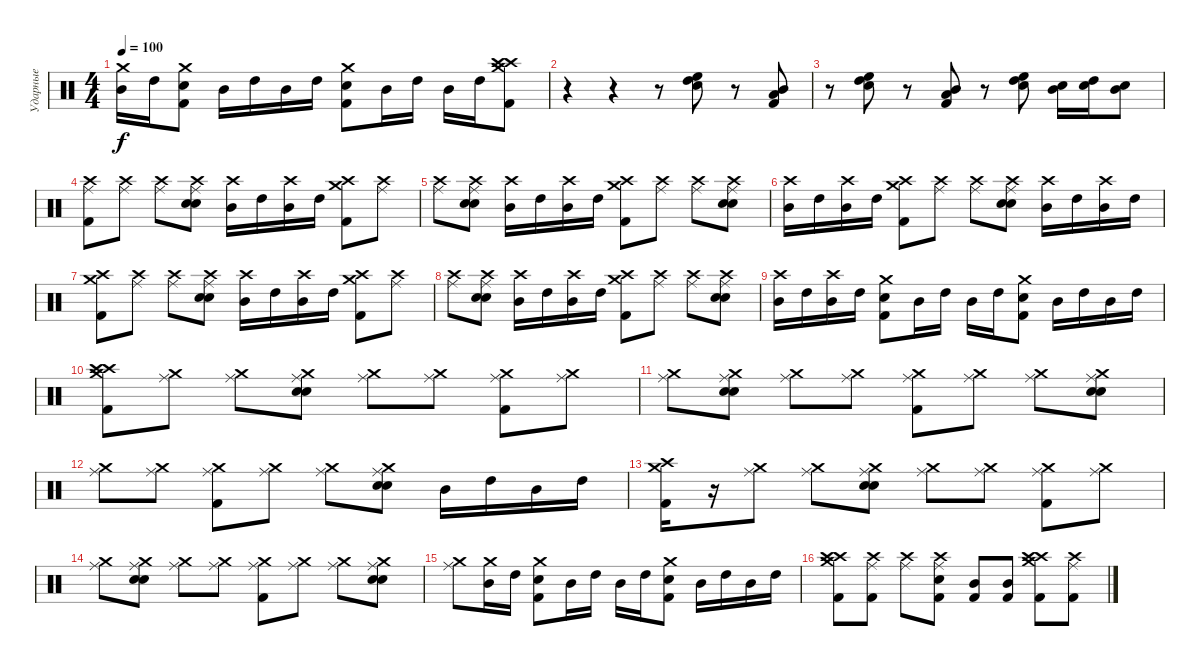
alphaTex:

\track ("Ударные" "Ударные") {instrument percussion}
\staff {score}
\articulation defaults
\ts (4 4)
\tempo 100
\clef neutral
\ks c
("Crash medium (hit)" "Mid Tom (hit)").16{dy f} "High Tom (hit)".16 ("Crash medium (hit)" "Snare (hit) 2" "Kick (hit) 2").8 "Mid Tom (hit)".16 "High Tom (hit)".16 "Mid Tom (hit)".16 "High Tom (hit)".16 ("Crash medium (hit)" "Snare (hit) 2" "Kick (hit) 2").8 "Mid Tom (hit)".16 "High Tom (hit)".16 "Mid Tom (hit)".16 "High Tom (hit)".16 ("Crash high (hit)" "Crash medium (hit)" "Crash high (hit)" "Kick (hit) 2").8 |
r.4 r.4 r.8 ("High Floor Tom (hit)" "High Tom (hit)" "Snare (hit) 2").8 r.8 ("Low Tom (hit)" "Mid Tom (hit)" "Kick (hit) 2").8 |
r.8 ("High Floor Tom (hit)" "High Tom (hit)" "Snare (hit) 2").8 r.8 ("Low Tom (hit)" "Mid Tom (hit)" "Kick (hit) 2").8 r.8 ("High Floor Tom (hit)" "High Tom (hit)" "Snare (hit) 2").8 ("Mid Tom (hit)" "Electric Snare (hit)").16 ("High Tom (hit)" "Snare (hit) 2").16 ("Mid Tom (hit)" "Electric Snare (hit)").8 |
("Crash high (hit)" "Kick (hit) 2" "Ride (middle)").8 ("Crash high (hit)" "Ride (middle)").8 ("Crash high (hit)" "Ride (middle)").8 ("Crash high (hit)" "Hand Clap (hit)" "Electric Snare (hit)" "Ride (middle)").8 ("Crash high (hit)" "Mid Tom (hit)").16 "High Tom (hit)".16 ("Crash high (hit)" "Mid Tom (hit)").16 "High Tom (hit)".16 ("Crash medium (hit)" "Crash high (hit)" "Kick (hit) 2").8 ("Crash high (hit)" "Ride (middle)").8 |
("Crash high (hit)" "Ride (middle)").8 ("Crash high (hit)" "Hand Clap (hit)" "Electric Snare (hit)" "Ride (middle)").8 ("Crash high (hit)" "Mid Tom (hit)").16 "High Tom (hit)".16 ("Crash high (hit)" "Mid Tom (hit)").16 "High Tom (hit)".16 ("Crash medium (hit)" "Crash high (hit)" "Kick (hit) 2").8 ("Crash high (hit)" "Ride (middle)").8 ("Crash high (hit)" "Ride (middle)").8 ("Crash high (hit)" "Hand Clap (hit)" "Electric Snare (hit)" "Ride (middle)").8 |
("Crash high (hit)" "Mid Tom (hit)").16 "High Tom (hit)".16 ("Crash high (hit)" "Mid Tom (hit)").16 "High Tom (hit)".16 ("Crash medium (hit)" "Crash high (hit)" "Kick (hit) 2").8 ("Crash high (hit)" "Ride (middle)").8 ("Crash high (hit)" "Ride (middle)").8 ("Crash high (hit)" "Hand Clap (hit)" "Electric Snare (hit)" "Ride (middle)").8 ("Crash high (hit)" "Mid Tom (hit)").16 "High Tom (hit)".16 ("Crash high (hit)" "Mid Tom (hit)").16 "High Tom (hit)".16 |
("Crash medium (hit)" "Crash high (hit)" "Kick (hit) 2").8 ("Crash high (hit)" "Ride (middle)").8 ("Crash high (hit)" "Ride (middle)").8 ("Crash high (hit)" "Hand Clap (hit)" "Electric Snare (hit)" "Ride (middle)").8 ("Crash high (hit)" "Mid Tom (hit)").16 "High Tom (hit)".16 ("Crash high (hit)" "Mid Tom (hit)").16 "High Tom (hit)".16 ("Crash medium (hit)" "Crash high (hit)" "Kick (hit) 2").8 ("Crash high (hit)" "Ride (middle)").8 |
("Crash high (hit)" "Ride (middle)").8 ("Crash high (hit)" "Hand Clap (hit)" "Electric Snare (hit)" "Ride (middle)").8 ("Crash high (hit)" "Mid Tom (hit)").16 "High Tom (hit)".16 ("Crash high (hit)" "Mid Tom (hit)").16 "High Tom (hit)".16 ("Crash medium (hit)" "Crash high (hit)" "Kick (hit) 2").8 ("Crash high (hit)" "Ride (middle)").8 ("Crash high (hit)" "Ride (middle)").8 ("Crash high (hit)" "Hand Clap (hit)" "Electric Snare (hit)" "Ride (middle)").8 |
("Crash high (hit)" "Mid Tom (hit)").16 "High Tom (hit)".16 ("Crash high (hit)" "Mid Tom (hit)").16 "High Tom (hit)".16 ("Crash medium (hit)" "Snare (hit) 2" "Kick (hit) 2").8 "Mid Tom (hit)".16 "High Tom (hit)".16 "Mid Tom (hit)".16 "High Tom (hit)".16 ("Crash medium (hit)" "Snare (hit) 2" "Kick (hit) 2").8 "Mid Tom (hit)".16 "High Tom (hit)".16 "Mid Tom (hit)".16 "High Tom (hit)".16 |
("Crash high (hit)" "Crash medium (hit)" "Crash high (hit)" "Kick (hit) 2").8 ("Crash medium (hit)" "Ride (middle)").8 ("Crash medium (hit)" "Ride (middle)").8 ("Crash medium (hit)" "Hand Clap (hit)" "Electric Snare (hit)" "Ride (middle)").8 ("Crash medium (hit)" "Ride (middle)").8 ("Crash medium (hit)" "Ride (middle)").8 ("Crash medium (hit)" "Kick (hit) 2" "Ride (middle)").8 ("Crash medium (hit)" "Ride (middle)").8 |
("Crash medium (hit)" "Ride (middle)").8 ("Crash medium (hit)" "Hand Clap (hit)" "Electric Snare (hit)" "Ride (middle)").8 ("Crash medium (hit)" "Ride (middle)").8 ("Crash medium (hit)" "Ride (middle)").8 ("Crash medium (hit)" "Kick (hit) 2" "Ride (middle)").8 ("Crash medium (hit)" "Ride (middle)").8 ("Crash medium (hit)" "Ride (middle)").8 ("Crash medium (hit)" "Hand Clap (hit)" "Electric Snare (hit)" "Ride (middle)").8 |
("Crash medium (hit)" "Ride (middle)").8 ("Crash medium (hit)" "Ride (middle)").8 ("Crash medium (hit)" "Kick (hit) 2" "Ride (middle)").8 ("Crash medium (hit)" "Ride (middle)").8 ("Crash medium (hit)" "Ride (middle)").8 ("Crash medium (hit)" "Hand Clap (hit)" "Electric Snare (hit)" "Ride (middle)").8 "Mid Tom (hit)".16 "High Tom (hit)".16 "Mid Tom (hit)".16 "High Tom (hit)".16 |
("Crash medium (hit)" "Crash high (hit)" "Kick (hit) 2").16 r.16 ("Crash medium (hit)" "Ride (middle)").8 ("Crash medium (hit)" "Ride (middle)").8 ("Crash medium (hit)" "Hand Clap (hit)" "Electric Snare (hit)" "Ride (middle)").8 ("Crash medium (hit)" "Ride (middle)").8 ("Crash medium (hit)" "Ride (middle)").8 ("Crash medium (hit)" "Kick (hit) 2" "Ride (middle)").8 ("Crash medium (hit)" "Ride (middle)").8 |
("Crash medium (hit)" "Ride (middle)").8 ("Crash medium (hit)" "Hand Clap (hit)" "Electric Snare (hit)" "Ride (middle)").8 ("Crash medium (hit)" "Ride (middle)").8 ("Crash medium (hit)" "Ride (middle)").8 ("Crash medium (hit)" "Kick (hit) 2" "Ride (middle)").8 ("Crash medium (hit)" "Ride (middle)").8 ("Crash medium (hit)" "Ride (middle)").8 ("Crash medium (hit)" "Hand Clap (hit)" "Electric Snare (hit)" "Ride (middle)").8 |
("Crash medium (hit)" "Ride (middle)").8 ("Crash medium (hit)" "Mid Tom (hit)").16 "High Tom (hit)".16 ("Crash medium (hit)" "Snare (hit) 2" "Kick (hit) 2").8 "Mid Tom (hit)".16 "High Tom (hit)".16 "Mid Tom (hit)".16 "High Tom (hit)".16 ("Crash medium (hit)" "Snare (hit) 2" "Kick (hit) 2").8 "Mid Tom (hit)".16 "High Tom (hit)".16 "Mid Tom (hit)".16 "High Tom (hit)".16 |
("Crash high (hit)" "Crash medium (hit)" "Crash high (hit)" "Kick (hit) 2").8 ("Crash high (hit)" "Kick (hit) 2" "Ride (middle)").8 ("Crash high (hit)" "Ride (middle)").8 ("Crash high (hit)" "Electric Snare (hit)" "Kick (hit) 2" "Ride (middle)").8 ("Kick (hit) 2" "Mid Tom (hit)").8 ("Kick (hit) 2" "Mid Tom (hit)").8 ("Crash high (hit)" "Crash medium (hit)" "Crash high (hit)" "Kick (hit) 2").8 ("Crash high (hit)" "Kick (hit) 2" "Ride (middle)").8
